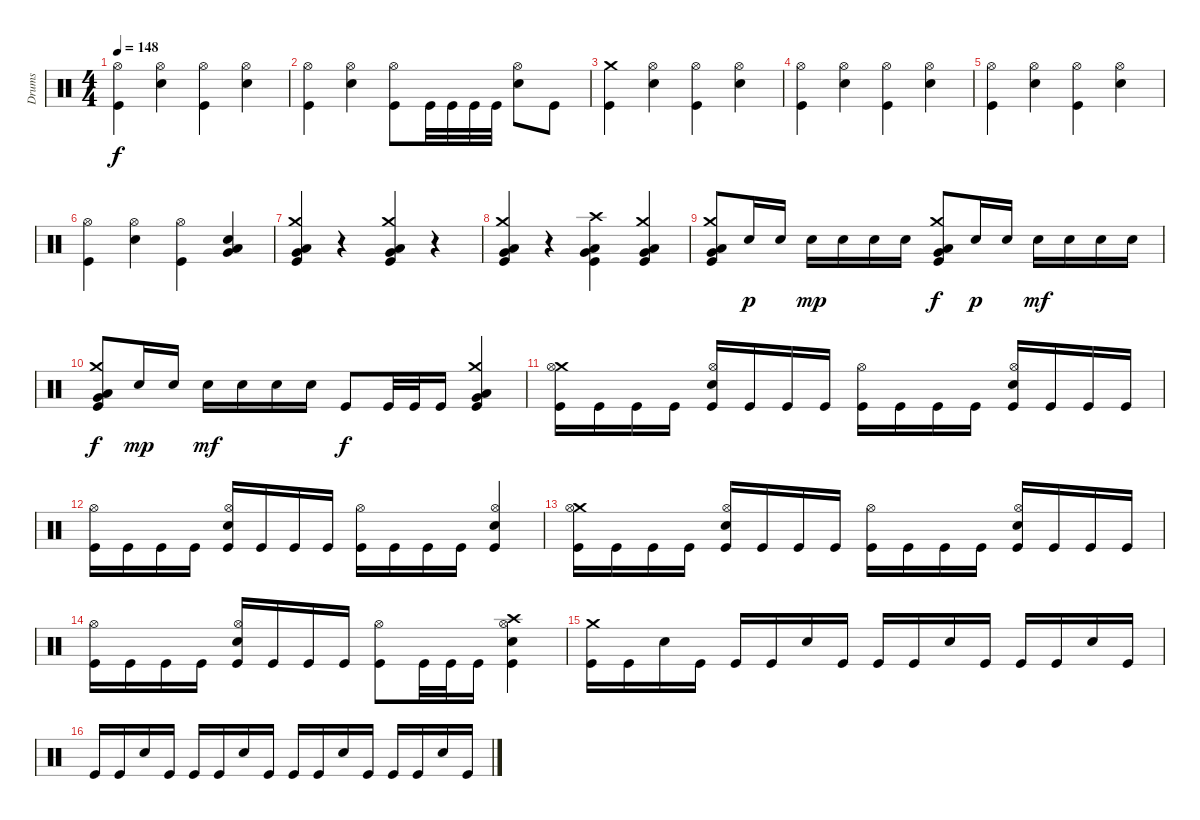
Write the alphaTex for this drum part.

\track ("Drums" "Drums") {instrument percussion}
\staff {score}
\articulation defaults
\ts (4 4)
\tempo 148
\clef neutral
\ks c
("Kick (hit)" "Hi-Hat (open)").4{dy f} ("Snare (hit) 2" "Hi-Hat (open)").4 ("Kick (hit)" "Hi-Hat (open)").4 ("Snare (hit) 2" "Hi-Hat (open)").4 |
("Kick (hit)" "Hi-Hat (open)").4 ("Snare (hit) 2" "Hi-Hat (open)").4 ("Kick (hit)" "Hi-Hat (open)").8 "Kick (hit)".32 "Kick (hit)".32 "Kick (hit)".32 "Kick (hit)".32 ("Snare (hit) 2" "Hi-Hat (open)").8 "Kick (hit)".8 |
("Kick (hit)" "Crash medium (hit)").4 ("Snare (hit) 2" "Hi-Hat (open)").4 ("Kick (hit)" "Hi-Hat (open)").4 ("Snare (hit) 2" "Hi-Hat (open)").4 |
("Kick (hit)" "Hi-Hat (open)").4 ("Snare (hit) 2" "Hi-Hat (open)").4 ("Kick (hit)" "Hi-Hat (open)").4 ("Snare (hit) 2" "Hi-Hat (open)").4 |
("Kick (hit)" "Hi-Hat (open)").4 ("Snare (hit) 2" "Hi-Hat (open)").4 ("Kick (hit)" "Hi-Hat (open)").4 ("Snare (hit) 2" "Hi-Hat (open)").4 |
("Kick (hit)" "Hi-Hat (open)").4 ("Snare (hit) 2" "Hi-Hat (open)").4 ("Kick (hit)" "Hi-Hat (open)").4 ("Snare (hit) 2" "Low Floor Tom (hit)" "Very Low Tom (hit)").4 |
("Kick (hit)" "Crash medium (hit)" "Low Floor Tom (hit)" "Very Low Tom (hit)").4 r.4 ("Kick (hit)" "Crash medium (hit)" "Low Floor Tom (hit)" "Very Low Tom (hit)").4 r.4 |
("Kick (hit)" "Crash medium (hit)" "Low Floor Tom (hit)" "Very Low Tom (hit)").4 r.4 ("Crash high (hit)" "Kick (hit)" "Low Floor Tom (hit)" "Very Low Tom (hit)").4 ("Crash medium (hit)" "Kick (hit)" "Low Floor Tom (hit)" "Very Low Tom (hit)").4 |
("Kick (hit)" "Crash medium (hit)" "Low Floor Tom (hit)" "Very Low Tom (hit)").8 "Electric Snare (hit)".16{dy p} "Electric Snare (hit)".16 "Electric Snare (hit)".16{dy mp} "Electric Snare (hit)".16 "Electric Snare (hit)".16 "Electric Snare (hit)".16 ("Kick (hit)" "Crash medium (hit)" "Low Floor Tom (hit)" "Very Low Tom (hit)").8{dy f} "Electric Snare (hit)".16{dy p} "Electric Snare (hit)".16 "Electric Snare (hit)".16{dy mf} "Electric Snare (hit)".16 "Electric Snare (hit)".16 "Electric Snare (hit)".16 |
("Kick (hit)" "Crash medium (hit)" "Low Floor Tom (hit)" "Very Low Tom (hit)").8{dy f} "Electric Snare (hit)".16{dy mp} "Electric Snare (hit)".16 "Electric Snare (hit)".16{dy mf} "Electric Snare (hit)".16 "Electric Snare (hit)".16 "Electric Snare (hit)".16 "Kick (hit)".8{dy f} "Kick (hit)".32 "Kick (hit)".32 "Kick (hit)".16 ("Crash medium (hit)" "Kick (hit)" "Low Floor Tom (hit)" "Very Low Tom (hit)").4 |
("Crash medium (hit)" "Kick (hit)" "Hi-Hat (open)").16 "Kick (hit)".16 "Kick (hit)".16 "Kick (hit)".16 ("Kick (hit)" "Snare (hit) 2" "Hi-Hat (open)").16 "Kick (hit)".16 "Kick (hit)".16 "Kick (hit)".16 ("Kick (hit)" "Hi-Hat (open)").16 "Kick (hit)".16 "Kick (hit)".16 "Kick (hit)".16 ("Kick (hit)" "Snare (hit) 2" "Hi-Hat (open)").16 "Kick (hit)".16 "Kick (hit)".16 "Kick (hit)".16 |
("Kick (hit)" "Hi-Hat (open)").16 "Kick (hit)".16 "Kick (hit)".16 "Kick (hit)".16 ("Kick (hit)" "Snare (hit) 2" "Hi-Hat (open)").16 "Kick (hit)".16 "Kick (hit)".16 "Kick (hit)".16 ("Kick (hit)" "Hi-Hat (open)").16 "Kick (hit)".16 "Kick (hit)".16 "Kick (hit)".16 ("Kick (hit)" "Snare (hit) 2" "Hi-Hat (open)").4 |
("Crash medium (hit)" "Kick (hit)" "Hi-Hat (open)").16 "Kick (hit)".16 "Kick (hit)".16 "Kick (hit)".16 ("Kick (hit)" "Snare (hit) 2" "Hi-Hat (open)").16 "Kick (hit)".16 "Kick (hit)".16 "Kick (hit)".16 ("Kick (hit)" "Hi-Hat (open)").16 "Kick (hit)".16 "Kick (hit)".16 "Kick (hit)".16 ("Kick (hit)" "Snare (hit) 2" "Hi-Hat (open)").16 "Kick (hit)".16 "Kick (hit)".16 "Kick (hit)".16 |
("Kick (hit)" "Hi-Hat (open)").16 "Kick (hit)".16 "Kick (hit)".16 "Kick (hit)".16 ("Kick (hit)" "Snare (hit) 2" "Hi-Hat (open)").16 "Kick (hit)".16 "Kick (hit)".16 "Kick (hit)".16 ("Kick (hit)" "Hi-Hat (open)").8 "Kick (hit)".32 "Kick (hit)".32 "Kick (hit)".16 ("Kick (hit)" "Snare (hit) 2" "Crash high (hit)" "Hi-Hat (open)").4 |
("Kick (hit)" "Crash medium (hit)").16 "Kick (hit)".16 "Snare (hit) 2".16 "Kick (hit)".16 "Kick (hit)".16 "Kick (hit)".16 "Snare (hit) 2".16 "Kick (hit)".16 "Kick (hit)".16 "Kick (hit)".16 "Snare (hit) 2".16 "Kick (hit)".16 "Kick (hit)".16 "Kick (hit)".16 "Snare (hit) 2".16 "Kick (hit)".16 |
"Kick (hit)".16 "Kick (hit)".16 "Snare (hit) 2".16 "Kick (hit)".16 "Kick (hit)".16 "Kick (hit)".16 "Snare (hit) 2".16 "Kick (hit)".16 "Kick (hit)".16 "Kick (hit)".16 "Snare (hit) 2".16 "Kick (hit)".16 "Kick (hit)".16 "Kick (hit)".16 "Snare (hit) 2".16 "Kick (hit)".16
